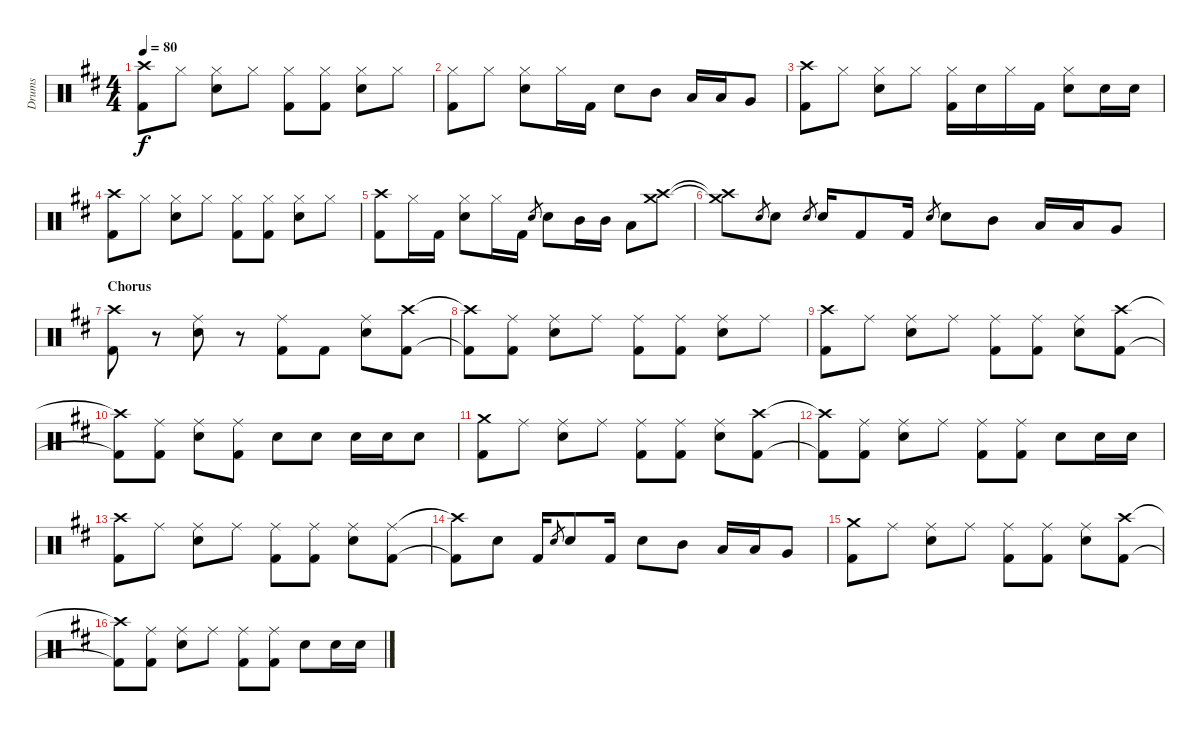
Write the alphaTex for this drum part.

\track ("Drums" "Drums") {instrument percussion}
\staff {score}
\articulation defaults
\ts (4 4)
\tempo 80
\clef neutral
\ks d
("Crash high (hit)" "Kick (hit) 2").8{dy f} "Hi-Hat (closed)".8 ("Hi-Hat (closed)" "Snare (hit) 2").8 "Hi-Hat (closed)".8 ("Hi-Hat (closed)" "Kick (hit) 2").8 ("Hi-Hat (closed)" "Kick (hit) 2").8 ("Hi-Hat (closed)" "Snare (hit) 2").8 "Hi-Hat (closed)".8 |
("Hi-Hat (closed)" "Kick (hit) 2").8 "Hi-Hat (closed)".8 ("Hi-Hat (closed)" "Snare (hit) 2").8 "Hi-Hat (closed)".16 "Kick (hit) 2".16 "Snare (hit) 2".8 "Mid Tom (hit)".8 "Low Tom (hit)".16 "Low Tom (hit)".16 "Very Low Tom (hit)".8 |
("Crash high (hit)" "Kick (hit) 2").8 "Hi-Hat (closed)".8 ("Hi-Hat (closed)" "Snare (hit) 2").8 "Hi-Hat (closed)".8 ("Hi-Hat (closed)" "Kick (hit) 2").16 "Snare (hit) 2".16 "Hi-Hat (closed)".16 "Kick (hit) 2".16 ("Hi-Hat (closed)" "Snare (hit) 2").8 "Snare (hit) 2".16 "Snare (hit) 2".16 |
("Crash high (hit)" "Kick (hit) 2").8 "Hi-Hat (closed)".8 ("Hi-Hat (closed)" "Snare (hit) 2").8 "Hi-Hat (closed)".8 ("Hi-Hat (closed)" "Kick (hit) 2").8 ("Hi-Hat (closed)" "Kick (hit) 2").8 ("Hi-Hat (closed)" "Snare (hit) 2").8 "Hi-Hat (closed)".8 |
("Crash high (hit)" "Kick (hit) 2").8 "Hi-Hat (closed)".16 "Kick (hit) 2".16 ("Hi-Hat (closed)" "Snare (hit) 2").8 "Hi-Hat (closed)".16 "Kick (hit) 2".16 "Snare (hit) 2".8{gr} "Snare (hit) 2".8 "Mid Tom (hit)".16 "Mid Tom (hit)".16 "Low Tom (hit)".8 ("Crash medium (hit)" "Crash high (hit)").8 |
("Crash medium (hit)"{t} "Crash high (hit)"{t}).8 "Snare (hit) 2".8{gr} "Snare (hit) 2".8 "Snare (hit) 2".8{gr} "Snare (hit) 2".16 "Kick (hit) 2".8 "Kick (hit) 2".16 "Snare (hit) 2".8{gr} "Snare (hit) 2".8 "Mid Tom (hit)".8 "Low Tom (hit)".16 "Low Tom (hit)".16 "Very Low Tom (hit)".8 |
\section ("" "Chorus")
("Crash high (hit)" "Kick (hit) 2").8 r.8 ("Ride (middle)" "Snare (hit) 2").8 r.8 ("Ride (middle)" "Kick (hit) 2").8 "Kick (hit) 2".8 ("Ride (middle)" "Snare (hit) 2").8 ("Crash high (hit)" "Kick (hit) 2").8 |
("Crash high (hit)"{t} "Kick (hit) 2"{t}).8 ("Ride (middle)" "Kick (hit) 2").8 ("Ride (middle)" "Snare (hit) 2").8 "Ride (middle)".8 ("Ride (middle)" "Kick (hit) 2").8 ("Ride (middle)" "Kick (hit) 2").8 ("Ride (middle)" "Snare (hit) 2").8 "Ride (middle)".8 |
("Crash high (hit)" "Kick (hit) 2").8 "Ride (middle)".8 ("Ride (middle)" "Snare (hit) 2").8 "Ride (middle)".8 ("Ride (middle)" "Kick (hit) 2").8 ("Ride (middle)" "Kick (hit) 2").8 ("Ride (middle)" "Snare (hit) 2").8 ("Crash high (hit)" "Kick (hit) 2").8 |
("Crash high (hit)"{t} "Kick (hit) 2"{t}).8 ("Ride (middle)" "Kick (hit) 2").8 ("Ride (middle)" "Snare (hit) 2").8 ("Ride (middle)" "Kick (hit) 2").8 "Snare (hit) 2".8 "Snare (hit) 2".8 "Snare (hit) 2".16 "Snare (hit) 2".16 "Snare (hit) 2".8 |
("Crash medium (hit)" "Kick (hit) 2").8 "Ride (middle)".8 ("Ride (middle)" "Snare (hit) 2").8 "Ride (middle)".8 ("Ride (middle)" "Kick (hit) 2").8 ("Ride (middle)" "Kick (hit) 2").8 ("Ride (middle)" "Snare (hit) 2").8 ("Crash high (hit)" "Kick (hit) 2").8 |
("Crash high (hit)"{t} "Kick (hit) 2"{t}).8 ("Ride (middle)" "Kick (hit) 2").8 ("Ride (middle)" "Snare (hit) 2").8 "Ride (middle)".8 ("Ride (middle)" "Kick (hit) 2").8 ("Ride (middle)" "Kick (hit) 2").8 "Snare (hit) 2".8 "Snare (hit) 2".16 "Snare (hit) 2".16 |
("Crash high (hit)" "Kick (hit) 2").8 "Ride (middle)".8 ("Ride (middle)" "Snare (hit) 2").8 "Ride (middle)".8 ("Ride (middle)" "Kick (hit) 2").8 ("Ride (middle)" "Kick (hit) 2").8 ("Ride (middle)" "Snare (hit) 2").8 ("Ride (middle)" "Kick (hit) 2").8 |
("Crash high (hit)"{t} "Kick (hit) 2"{t}).8 "Snare (hit) 2".8 "Kick (hit) 2".16 "Snare (hit) 2".8{gr} "Snare (hit) 2".8 "Kick (hit) 2".16 "Snare (hit) 2".8 "Mid Tom (hit)".8 "Low Tom (hit)".16 "Low Tom (hit)".16 "Very Low Tom (hit)".8 |
("Crash medium (hit)" "Kick (hit) 2").8 "Ride (middle)".8 ("Ride (middle)" "Snare (hit) 2").8 "Ride (middle)".8 ("Ride (middle)" "Kick (hit) 2").8 ("Ride (middle)" "Kick (hit) 2").8 ("Ride (middle)" "Snare (hit) 2").8 ("Crash high (hit)" "Kick (hit) 2").8 |
("Crash high (hit)"{t} "Kick (hit) 2"{t}).8 ("Ride (middle)" "Kick (hit) 2").8 ("Ride (middle)" "Snare (hit) 2").8 "Ride (middle)".8 ("Ride (middle)" "Kick (hit) 2").8 ("Ride (middle)" "Kick (hit) 2").8 "Snare (hit) 2".8 "Snare (hit) 2".16 "Snare (hit) 2".16
